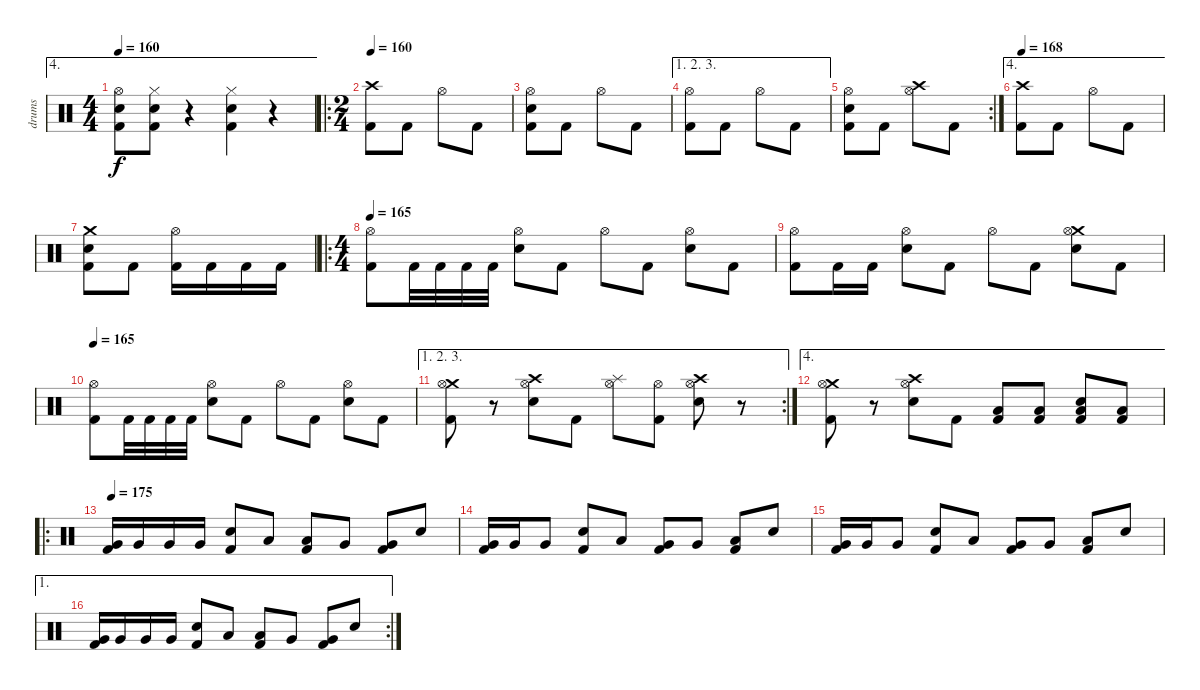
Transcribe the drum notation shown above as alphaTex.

\track ("drums" "drums") {instrument percussion}
\staff {score}
\articulation defaults
\ae 4
\ts (4 4)
\tempo 160
\clef neutral
\ks c
("Hi-Hat (open)" "Electric Snare (hit)" "Kick (hit) 2").8{dy f} ("Hi-Hat (closed)" "Electric Snare (hit)" "Kick (hit) 2").8 r.4 ("Hi-Hat (closed)" "Electric Snare (hit)" "Kick (hit) 2").4 r.4 |
\ro
\ts (2 4)
\tempo 160
("Crash high (hit)" "Kick (hit) 2").8 "Kick (hit) 2".8 "Hi-Hat (open)".8 "Kick (hit) 2".8 |
("Hi-Hat (open)" "Electric Snare (hit)" "Kick (hit) 2").8 "Kick (hit) 2".8 "Hi-Hat (open)".8 "Kick (hit) 2".8 |
\ae (1 2 3)
("Hi-Hat (open)" "Kick (hit) 2").8 "Kick (hit) 2".8 "Hi-Hat (open)".8 "Kick (hit) 2".8 |
\rc 2
("Hi-Hat (open)" "Electric Snare (hit)" "Kick (hit) 2").8 "Kick (hit) 2".8 ("Crash high (hit)" "Hi-Hat (open)").8 "Kick (hit) 2".8 |
\ae 4
\tempo 168
("Crash high (hit)" "Kick (hit) 2").8 "Kick (hit) 2".8 "Hi-Hat (open)".8 "Kick (hit) 2".8 |
("Crash medium (hit)" "Electric Snare (hit)" "Kick (hit) 2").8 "Kick (hit) 2".8 ("Hi-Hat (open)" "Kick (hit) 2").16 "Kick (hit) 2".16 "Kick (hit) 2".16 "Kick (hit) 2".16 |
\ro
\ts (4 4)
\tempo 165
("Hi-Hat (open)" "Kick (hit) 2").8 "Kick (hit) 2".32 "Kick (hit) 2".32 "Kick (hit) 2".32 "Kick (hit) 2".32 ("Hi-Hat (open)" "Electric Snare (hit)").8 "Kick (hit) 2".8 "Hi-Hat (open)".8 "Kick (hit) 2".8 ("Hi-Hat (open)" "Electric Snare (hit)").8 "Kick (hit) 2".8 |
("Hi-Hat (open)" "Kick (hit) 2").8 "Kick (hit) 2".16 "Kick (hit) 2".16 ("Hi-Hat (open)" "Electric Snare (hit)").8 "Kick (hit) 2".8 "Hi-Hat (open)".8 "Kick (hit) 2".8 ("Crash medium (hit)" "Hi-Hat (open)" "Electric Snare (hit)").8 "Kick (hit) 2".8 |
\tempo 165
("Hi-Hat (open)" "Kick (hit) 2").8 "Kick (hit) 2".32 "Kick (hit) 2".32 "Kick (hit) 2".32 "Kick (hit) 2".32 ("Hi-Hat (open)" "Electric Snare (hit)").8 "Kick (hit) 2".8 "Hi-Hat (open)".8 "Kick (hit) 2".8 ("Hi-Hat (open)" "Electric Snare (hit)").8 "Kick (hit) 2".8 |
\ae (1 2 3)
\rc 2
("Crash medium (hit)" "Hi-Hat (open)" "Kick (hit) 2").8 r.8 ("Crash high (hit)" "Hi-Hat (open)" "Electric Snare (hit)").8 "Kick (hit) 2".8 ("Splash (hit)" "Hi-Hat (open)").8 ("Hi-Hat (open)" "Kick (hit) 2").8 ("Crash high (hit)" "Hi-Hat (open)" "Electric Snare (hit)").8 r.8 |
\ae 4
("Crash medium (hit)" "Hi-Hat (open)" "Kick (hit) 2").8 r.8 ("Crash high (hit)" "Hi-Hat (open)" "Electric Snare (hit)").8 "Kick (hit) 2".8 ("Low Floor Tom (hit)" "Kick (hit) 2").8 ("Low Floor Tom (hit)" "Kick (hit) 2").8 ("Electric Snare (hit)" "Low Floor Tom (hit)" "Kick (hit) 2").8 ("Low Floor Tom (hit)" "Kick (hit) 2").8 |
\ro
\tempo 175
("Very Low Tom (hit)" "Kick (hit) 2").16 "Very Low Tom (hit)".16 "Very Low Tom (hit)".16 "Very Low Tom (hit)".16 ("Electric Snare (hit)" "Kick (hit) 2").8 "Low Floor Tom (hit)".8 ("Low Floor Tom (hit)" "Kick (hit) 2").8 "Very Low Tom (hit)".8 ("Very Low Tom (hit)" "Kick (hit) 2").8 "Electric Snare (hit)".8 |
("Very Low Tom (hit)" "Kick (hit) 2").16 "Very Low Tom (hit)".16 "Very Low Tom (hit)".8 ("Electric Snare (hit)" "Kick (hit) 2").8 "Low Floor Tom (hit)".8 ("Very Low Tom (hit)" "Kick (hit) 2").8 "Very Low Tom (hit)".8 ("Low Floor Tom (hit)" "Kick (hit) 2").8 "Electric Snare (hit)".8 |
("Very Low Tom (hit)" "Kick (hit) 2").16 "Very Low Tom (hit)".16 "Very Low Tom (hit)".8 ("Electric Snare (hit)" "Kick (hit) 2").8 "Low Floor Tom (hit)".8 ("Very Low Tom (hit)" "Kick (hit) 2").8 "Very Low Tom (hit)".8 ("Low Floor Tom (hit)" "Kick (hit) 2").8 "Electric Snare (hit)".8 |
\ae 1
\rc 2
("Very Low Tom (hit)" "Kick (hit) 2").16 "Very Low Tom (hit)".16 "Very Low Tom (hit)".16 "Very Low Tom (hit)".16 ("Electric Snare (hit)" "Kick (hit) 2").8 "Low Floor Tom (hit)".8 ("Low Floor Tom (hit)" "Kick (hit) 2").8 "Very Low Tom (hit)".8 ("Very Low Tom (hit)" "Kick (hit) 2").8 "Electric Snare (hit)".8
